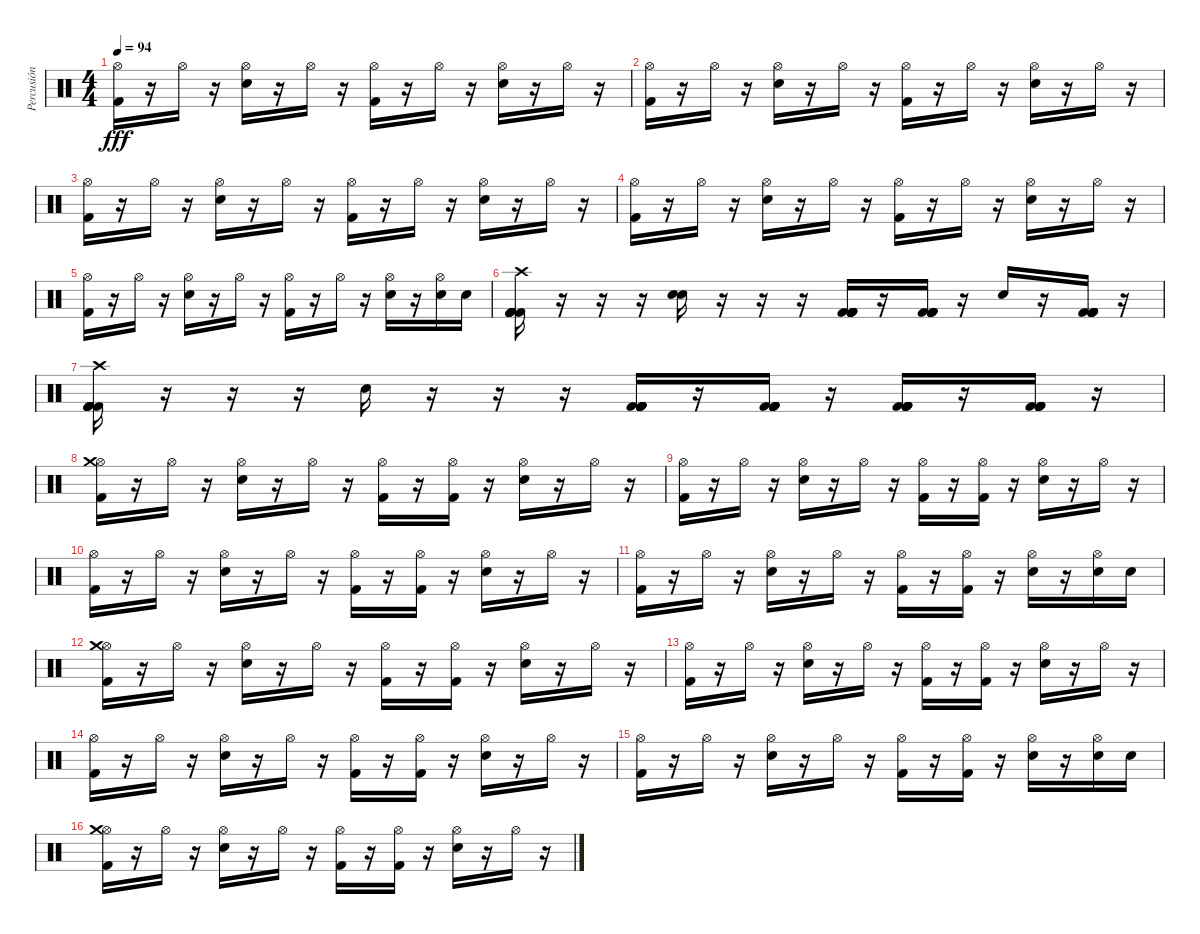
\track ("Percusión" "Percusión") {instrument percussion}
\staff {score}
\articulation defaults
\ts (4 4)
\tempo 94
\clef neutral
\ks c
("Hi-Hat (open)" "Kick (hit) 2").16{dy fff} r.16 "Hi-Hat (open)".16 r.16 ("Hi-Hat (open)" "Snare (hit) 2").16 r.16 "Hi-Hat (open)".16 r.16 ("Hi-Hat (open)" "Kick (hit) 2").16 r.16 "Hi-Hat (open)".16 r.16 ("Hi-Hat (open)" "Snare (hit) 2").16 r.16 "Hi-Hat (open)".16 r.16 |
("Hi-Hat (open)" "Kick (hit) 2").16 r.16 "Hi-Hat (open)".16 r.16 ("Hi-Hat (open)" "Snare (hit) 2").16 r.16 "Hi-Hat (open)".16 r.16 ("Hi-Hat (open)" "Kick (hit) 2").16 r.16 "Hi-Hat (open)".16 r.16 ("Hi-Hat (open)" "Snare (hit) 2").16 r.16 "Hi-Hat (open)".16 r.16 |
("Hi-Hat (open)" "Kick (hit) 2").16 r.16 "Hi-Hat (open)".16 r.16 ("Hi-Hat (open)" "Snare (hit) 2").16 r.16 "Hi-Hat (open)".16 r.16 ("Hi-Hat (open)" "Kick (hit) 2").16 r.16 "Hi-Hat (open)".16 r.16 ("Hi-Hat (open)" "Snare (hit) 2").16 r.16 "Hi-Hat (open)".16 r.16 |
("Hi-Hat (open)" "Kick (hit) 2").16 r.16 "Hi-Hat (open)".16 r.16 ("Hi-Hat (open)" "Snare (hit) 2").16 r.16 "Hi-Hat (open)".16 r.16 ("Hi-Hat (open)" "Kick (hit) 2").16 r.16 "Hi-Hat (open)".16 r.16 ("Hi-Hat (open)" "Snare (hit) 2").16 r.16 "Hi-Hat (open)".16 r.16 |
("Hi-Hat (open)" "Kick (hit) 2").16 r.16 "Hi-Hat (open)".16 r.16 ("Hi-Hat (open)" "Snare (hit) 2").16 r.16 "Hi-Hat (open)".16 r.16 ("Hi-Hat (open)" "Kick (hit) 2").16 r.16 "Hi-Hat (open)".16 r.16 ("Hi-Hat (open)" "Snare (hit) 2").16 r.16 ("Hi-Hat (open)" "Snare (hit) 2").16 "Snare (hit) 2".16 |
("Crash high (hit)" "Kick (hit) 2" "Kick (hit) 2" "Kick (hit) 2" "Kick (hit) 2" "Kick (hit) 2").16 r.16 r.16 r.16 ("Snare (hit) 2" "Snare (hit) 2").16 r.16 r.16 r.16 ("Kick (hit) 2" "Kick (hit) 2" "Kick (hit) 2" "Kick (hit) 2" "Kick (hit) 2" "Kick (hit) 2").16 r.16 ("Kick (hit) 2" "Kick (hit) 2" "Kick (hit) 2" "Kick (hit) 2" "Kick (hit) 2" "Kick (hit) 2").16 r.16 "Snare (hit) 2".16 r.16 ("Kick (hit) 2" "Kick (hit) 2" "Kick (hit) 2" "Kick (hit) 2" "Kick (hit) 2" "Kick (hit) 2").16 r.16 |
("Crash high (hit)" "Kick (hit) 2" "Kick (hit) 2" "Kick (hit) 2" "Kick (hit) 2" "Kick (hit) 2").16 r.16 r.16 r.16 "Snare (hit) 2".16 r.16 r.16 r.16 ("Kick (hit) 2" "Kick (hit) 2" "Kick (hit) 2" "Kick (hit) 2" "Kick (hit) 2" "Kick (hit) 2").16 r.16 ("Kick (hit) 2" "Kick (hit) 2" "Kick (hit) 2" "Kick (hit) 2" "Kick (hit) 2" "Kick (hit) 2").16 r.16 ("Kick (hit) 2" "Kick (hit) 2" "Kick (hit) 2" "Kick (hit) 2" "Kick (hit) 2" "Kick (hit) 2").16 r.16 ("Kick (hit) 2" "Kick (hit) 2" "Kick (hit) 2" "Kick (hit) 2" "Kick (hit) 2" "Kick (hit) 2").16 r.16 |
("Hi-Hat (open)" "Kick (hit) 2" "Crash medium (hit)").16 r.16 "Hi-Hat (open)".16 r.16 ("Hi-Hat (open)" "Snare (hit) 2").16 r.16 "Hi-Hat (open)".16 r.16 ("Hi-Hat (open)" "Kick (hit) 2").16 r.16 ("Hi-Hat (open)" "Kick (hit) 2").16 r.16 ("Hi-Hat (open)" "Snare (hit) 2").16 r.16 "Hi-Hat (open)".16 r.16 |
("Hi-Hat (open)" "Kick (hit) 2").16 r.16 "Hi-Hat (open)".16 r.16 ("Hi-Hat (open)" "Snare (hit) 2").16 r.16 "Hi-Hat (open)".16 r.16 ("Hi-Hat (open)" "Kick (hit) 2").16 r.16 ("Hi-Hat (open)" "Kick (hit) 2").16 r.16 ("Hi-Hat (open)" "Snare (hit) 2").16 r.16 "Hi-Hat (open)".16 r.16 |
("Hi-Hat (open)" "Kick (hit) 2").16 r.16 "Hi-Hat (open)".16 r.16 ("Hi-Hat (open)" "Snare (hit) 2").16 r.16 "Hi-Hat (open)".16 r.16 ("Hi-Hat (open)" "Kick (hit) 2").16 r.16 ("Hi-Hat (open)" "Kick (hit) 2").16 r.16 ("Hi-Hat (open)" "Snare (hit) 2").16 r.16 "Hi-Hat (open)".16 r.16 |
("Hi-Hat (open)" "Kick (hit) 2").16 r.16 "Hi-Hat (open)".16 r.16 ("Hi-Hat (open)" "Snare (hit) 2").16 r.16 "Hi-Hat (open)".16 r.16 ("Hi-Hat (open)" "Kick (hit) 2").16 r.16 ("Hi-Hat (open)" "Kick (hit) 2").16 r.16 ("Hi-Hat (open)" "Snare (hit) 2").16 r.16 ("Hi-Hat (open)" "Snare (hit) 2").16 "Snare (hit) 2".16 |
("Hi-Hat (open)" "Kick (hit) 2" "Crash medium (hit)").16 r.16 "Hi-Hat (open)".16 r.16 ("Hi-Hat (open)" "Snare (hit) 2").16 r.16 "Hi-Hat (open)".16 r.16 ("Hi-Hat (open)" "Kick (hit) 2").16 r.16 ("Hi-Hat (open)" "Kick (hit) 2").16 r.16 ("Hi-Hat (open)" "Snare (hit) 2").16 r.16 "Hi-Hat (open)".16 r.16 |
("Hi-Hat (open)" "Kick (hit) 2").16 r.16 "Hi-Hat (open)".16 r.16 ("Hi-Hat (open)" "Snare (hit) 2").16 r.16 "Hi-Hat (open)".16 r.16 ("Hi-Hat (open)" "Kick (hit) 2").16 r.16 ("Hi-Hat (open)" "Kick (hit) 2").16 r.16 ("Hi-Hat (open)" "Snare (hit) 2").16 r.16 "Hi-Hat (open)".16 r.16 |
("Hi-Hat (open)" "Kick (hit) 2").16 r.16 "Hi-Hat (open)".16 r.16 ("Hi-Hat (open)" "Snare (hit) 2").16 r.16 "Hi-Hat (open)".16 r.16 ("Hi-Hat (open)" "Kick (hit) 2").16 r.16 ("Hi-Hat (open)" "Kick (hit) 2").16 r.16 ("Hi-Hat (open)" "Snare (hit) 2").16 r.16 "Hi-Hat (open)".16 r.16 |
("Hi-Hat (open)" "Kick (hit) 2").16 r.16 "Hi-Hat (open)".16 r.16 ("Hi-Hat (open)" "Snare (hit) 2").16 r.16 "Hi-Hat (open)".16 r.16 ("Hi-Hat (open)" "Kick (hit) 2").16 r.16 ("Hi-Hat (open)" "Kick (hit) 2").16 r.16 ("Hi-Hat (open)" "Snare (hit) 2").16 r.16 ("Hi-Hat (open)" "Snare (hit) 2").16 "Snare (hit) 2".16 |
("Hi-Hat (open)" "Kick (hit) 2" "Crash medium (hit)").16 r.16 "Hi-Hat (open)".16 r.16 ("Hi-Hat (open)" "Snare (hit) 2").16 r.16 "Hi-Hat (open)".16 r.16 ("Hi-Hat (open)" "Kick (hit) 2").16 r.16 ("Hi-Hat (open)" "Kick (hit) 2").16 r.16 ("Hi-Hat (open)" "Snare (hit) 2").16 r.16 "Hi-Hat (open)".16 r.16
